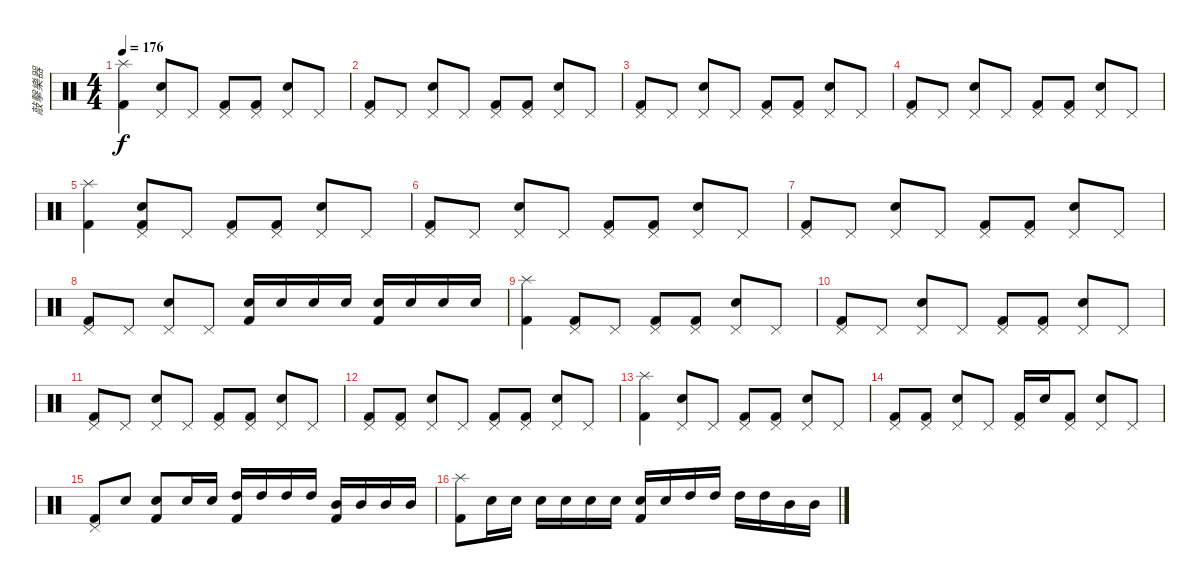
\track ("敲擊樂器" "敲擊樂器") {instrument percussion}
\staff {score}
\articulation defaults
\ts (4 4)
\tempo 176
\clef neutral
\ks c
("Splash (hit)" "Kick (hit) 2").4{dy f} ("Pedal Hi-Hat (hit)" "Snare (hit) 2").8 "Pedal Hi-Hat (hit)".8 ("Pedal Hi-Hat (hit)" "Kick (hit) 2").8 ("Pedal Hi-Hat (hit)" "Kick (hit) 2").8 ("Pedal Hi-Hat (hit)" "Snare (hit) 2").8 "Pedal Hi-Hat (hit)".8 |
("Pedal Hi-Hat (hit)" "Kick (hit) 2").8 "Pedal Hi-Hat (hit)".8 ("Snare (hit) 2" "Pedal Hi-Hat (hit)").8 "Pedal Hi-Hat (hit)".8 ("Pedal Hi-Hat (hit)" "Kick (hit) 2").8 ("Kick (hit) 2" "Pedal Hi-Hat (hit)").8 ("Pedal Hi-Hat (hit)" "Snare (hit) 2").8 "Pedal Hi-Hat (hit)".8 |
("Pedal Hi-Hat (hit)" "Kick (hit) 2").8 "Pedal Hi-Hat (hit)".8 ("Snare (hit) 2" "Pedal Hi-Hat (hit)").8 "Pedal Hi-Hat (hit)".8 ("Pedal Hi-Hat (hit)" "Kick (hit) 2").8 ("Kick (hit) 2" "Pedal Hi-Hat (hit)").8 ("Pedal Hi-Hat (hit)" "Snare (hit) 2").8 "Pedal Hi-Hat (hit)".8 |
("Pedal Hi-Hat (hit)" "Kick (hit) 2").8 "Pedal Hi-Hat (hit)".8 ("Snare (hit) 2" "Pedal Hi-Hat (hit)").8 "Pedal Hi-Hat (hit)".8 ("Pedal Hi-Hat (hit)" "Kick (hit) 2").8 ("Kick (hit) 2" "Pedal Hi-Hat (hit)").8 ("Pedal Hi-Hat (hit)" "Snare (hit) 2").8 "Pedal Hi-Hat (hit)".8 |
("Splash (hit)" "Kick (hit) 2").4 ("Pedal Hi-Hat (hit)" "Snare (hit) 2" "Kick (hit) 2").8 "Pedal Hi-Hat (hit)".8 ("Kick (hit) 2" "Pedal Hi-Hat (hit)").8 ("Kick (hit) 2" "Pedal Hi-Hat (hit)").8 ("Snare (hit) 2" "Pedal Hi-Hat (hit)").8 "Pedal Hi-Hat (hit)".8 |
("Pedal Hi-Hat (hit)" "Kick (hit) 2").8 "Pedal Hi-Hat (hit)".8 ("Snare (hit) 2" "Pedal Hi-Hat (hit)").8 "Pedal Hi-Hat (hit)".8 ("Pedal Hi-Hat (hit)" "Kick (hit) 2").8 ("Kick (hit) 2" "Pedal Hi-Hat (hit)").8 ("Pedal Hi-Hat (hit)" "Snare (hit) 2").8 "Pedal Hi-Hat (hit)".8 |
("Pedal Hi-Hat (hit)" "Kick (hit) 2").8 "Pedal Hi-Hat (hit)".8 ("Snare (hit) 2" "Pedal Hi-Hat (hit)").8 "Pedal Hi-Hat (hit)".8 ("Pedal Hi-Hat (hit)" "Kick (hit) 2").8 ("Kick (hit) 2" "Pedal Hi-Hat (hit)").8 ("Pedal Hi-Hat (hit)" "Snare (hit) 2").8 "Pedal Hi-Hat (hit)".8 |
("Pedal Hi-Hat (hit)" "Kick (hit) 2").8 "Pedal Hi-Hat (hit)".8 ("Snare (hit) 2" "Pedal Hi-Hat (hit)").8 "Pedal Hi-Hat (hit)".8 ("Kick (hit) 2" "Snare (hit) 2").16 "Snare (hit) 2".16 "Snare (hit) 2".16 "Snare (hit) 2".16 ("Snare (hit) 2" "Kick (hit) 2").16 "Snare (hit) 2".16 "Snare (hit) 2".16 "Snare (hit) 2".16 |
("Kick (hit) 2" "Splash (hit)").4 ("Kick (hit) 2" "Pedal Hi-Hat (hit)").8 "Pedal Hi-Hat (hit)".8 ("Kick (hit) 2" "Pedal Hi-Hat (hit)").8 ("Kick (hit) 2" "Pedal Hi-Hat (hit)").8 ("Snare (hit) 2" "Pedal Hi-Hat (hit)").8 "Pedal Hi-Hat (hit)".8 |
("Pedal Hi-Hat (hit)" "Kick (hit) 2").8 "Pedal Hi-Hat (hit)".8 ("Snare (hit) 2" "Pedal Hi-Hat (hit)").8 "Pedal Hi-Hat (hit)".8 ("Pedal Hi-Hat (hit)" "Kick (hit) 2").8 ("Kick (hit) 2" "Pedal Hi-Hat (hit)").8 ("Pedal Hi-Hat (hit)" "Snare (hit) 2").8 "Pedal Hi-Hat (hit)".8 |
("Pedal Hi-Hat (hit)" "Kick (hit) 2").8 "Pedal Hi-Hat (hit)".8 ("Snare (hit) 2" "Pedal Hi-Hat (hit)").8 "Pedal Hi-Hat (hit)".8 ("Pedal Hi-Hat (hit)" "Kick (hit) 2").8 ("Kick (hit) 2" "Pedal Hi-Hat (hit)").8 ("Pedal Hi-Hat (hit)" "Snare (hit) 2").8 "Pedal Hi-Hat (hit)".8 |
("Pedal Hi-Hat (hit)" "Kick (hit) 2").8 ("Pedal Hi-Hat (hit)" "Kick (hit) 2").8 ("Snare (hit) 2" "Pedal Hi-Hat (hit)").8 "Pedal Hi-Hat (hit)".8 ("Pedal Hi-Hat (hit)" "Kick (hit) 2").8 ("Kick (hit) 2" "Pedal Hi-Hat (hit)").8 ("Pedal Hi-Hat (hit)" "Snare (hit) 2").8 "Pedal Hi-Hat (hit)".8 |
("Kick (hit) 2" "Splash (hit)").4 ("Snare (hit) 2" "Pedal Hi-Hat (hit)").8 "Pedal Hi-Hat (hit)".8 ("Pedal Hi-Hat (hit)" "Kick (hit) 2").8 ("Pedal Hi-Hat (hit)" "Kick (hit) 2").8 ("Pedal Hi-Hat (hit)" "Snare (hit) 2").8 "Pedal Hi-Hat (hit)".8 |
("Kick (hit) 2" "Pedal Hi-Hat (hit)").8 ("Kick (hit) 2" "Pedal Hi-Hat (hit)").8 ("Snare (hit) 2" "Pedal Hi-Hat (hit)").8 "Pedal Hi-Hat (hit)".8 ("Pedal Hi-Hat (hit)" "Kick (hit) 2").16 "Snare (hit) 2".16 ("Pedal Hi-Hat (hit)" "Kick (hit) 2").8 ("Pedal Hi-Hat (hit)" "Snare (hit) 2").8 "Pedal Hi-Hat (hit)".8 |
("Pedal Hi-Hat (hit)" "Kick (hit) 2").8 "Snare (hit) 2".8 ("Kick (hit) 2" "Snare (hit) 2").8 "Snare (hit) 2".16 "Snare (hit) 2".16 ("High Tom (hit)" "Kick (hit) 2").16 "High Tom (hit)".16 "High Tom (hit)".16 "High Tom (hit)".16 ("Mid Tom (hit)" "Kick (hit) 2").16 "Mid Tom (hit)".16 "Mid Tom (hit)".16 "Mid Tom (hit)".16 |
("Splash (hit)" "Kick (hit) 2").8 "Snare (hit) 2".16 "Snare (hit) 2".16 "Snare (hit) 2".16 "Snare (hit) 2".16 "Snare (hit) 2".16 "Snare (hit) 2".16 ("Snare (hit) 2" "Kick (hit) 2").16 "Snare (hit) 2".16 "High Tom (hit)".16 "High Tom (hit)".16 "High Tom (hit)".16 "High Tom (hit)".16 "Mid Tom (hit)".16 "Mid Tom (hit)".16
